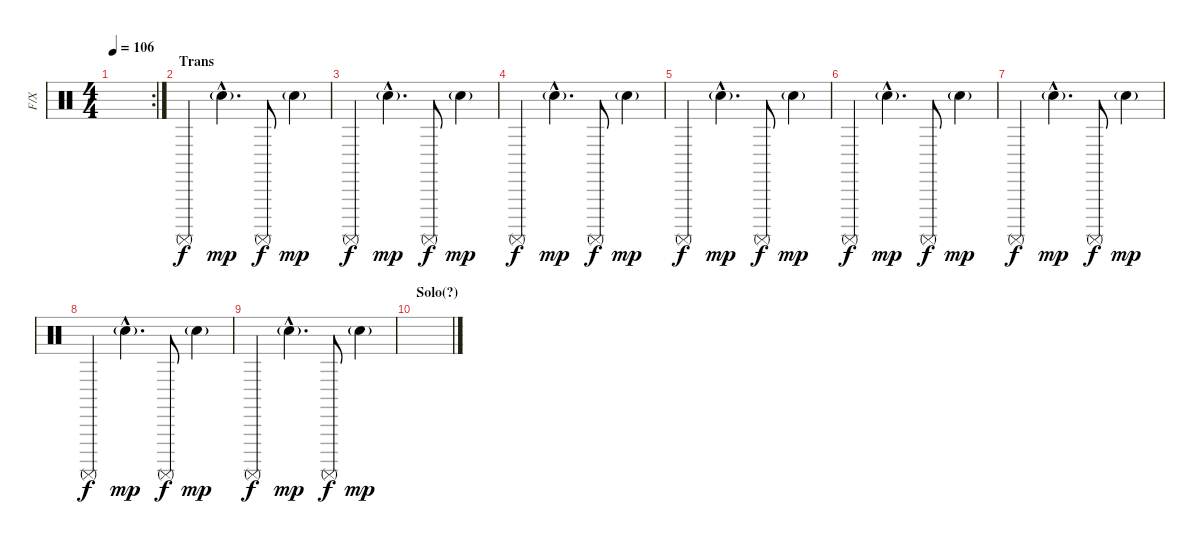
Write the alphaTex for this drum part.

\track ("F/X" "F/X") {instrument percussion}
\staff {score}
\articulation defaults
\rc 2
\ts (4 4)
\tempo 106
\clef neutral
\ks c
|
\section ("" "Trans")
"Surdo (mute)".4{dy f} "Snare (hit) 2"{g hac}.4{d dy mp} "Surdo (mute)".8{dy f} "Snare (hit) 2"{g}.4{dy mp} |
"Surdo (mute)".4{dy f} "Snare (hit) 2"{g hac}.4{d dy mp} "Surdo (mute)".8{dy f} "Snare (hit) 2"{g}.4{dy mp} |
"Surdo (mute)".4{dy f} "Snare (hit) 2"{g hac}.4{d dy mp} "Surdo (mute)".8{dy f} "Snare (hit) 2"{g}.4{dy mp} |
"Surdo (mute)".4{dy f} "Snare (hit) 2"{g hac}.4{d dy mp} "Surdo (mute)".8{dy f} "Snare (hit) 2"{g}.4{dy mp} |
"Surdo (mute)".4{dy f} "Snare (hit) 2"{g hac}.4{d dy mp} "Surdo (mute)".8{dy f} "Snare (hit) 2"{g}.4{dy mp} |
"Surdo (mute)".4{dy f} "Snare (hit) 2"{g hac}.4{d dy mp} "Surdo (mute)".8{dy f} "Snare (hit) 2"{g}.4{dy mp} |
"Surdo (mute)".4{dy f} "Snare (hit) 2"{g hac}.4{d dy mp} "Surdo (mute)".8{dy f} "Snare (hit) 2"{g}.4{dy mp} |
"Surdo (mute)".4{dy f} "Snare (hit) 2"{g hac}.4{d dy mp} "Surdo (mute)".8{dy f} "Snare (hit) 2"{g}.4{dy mp} |
\section ("" "Solo(?)")
